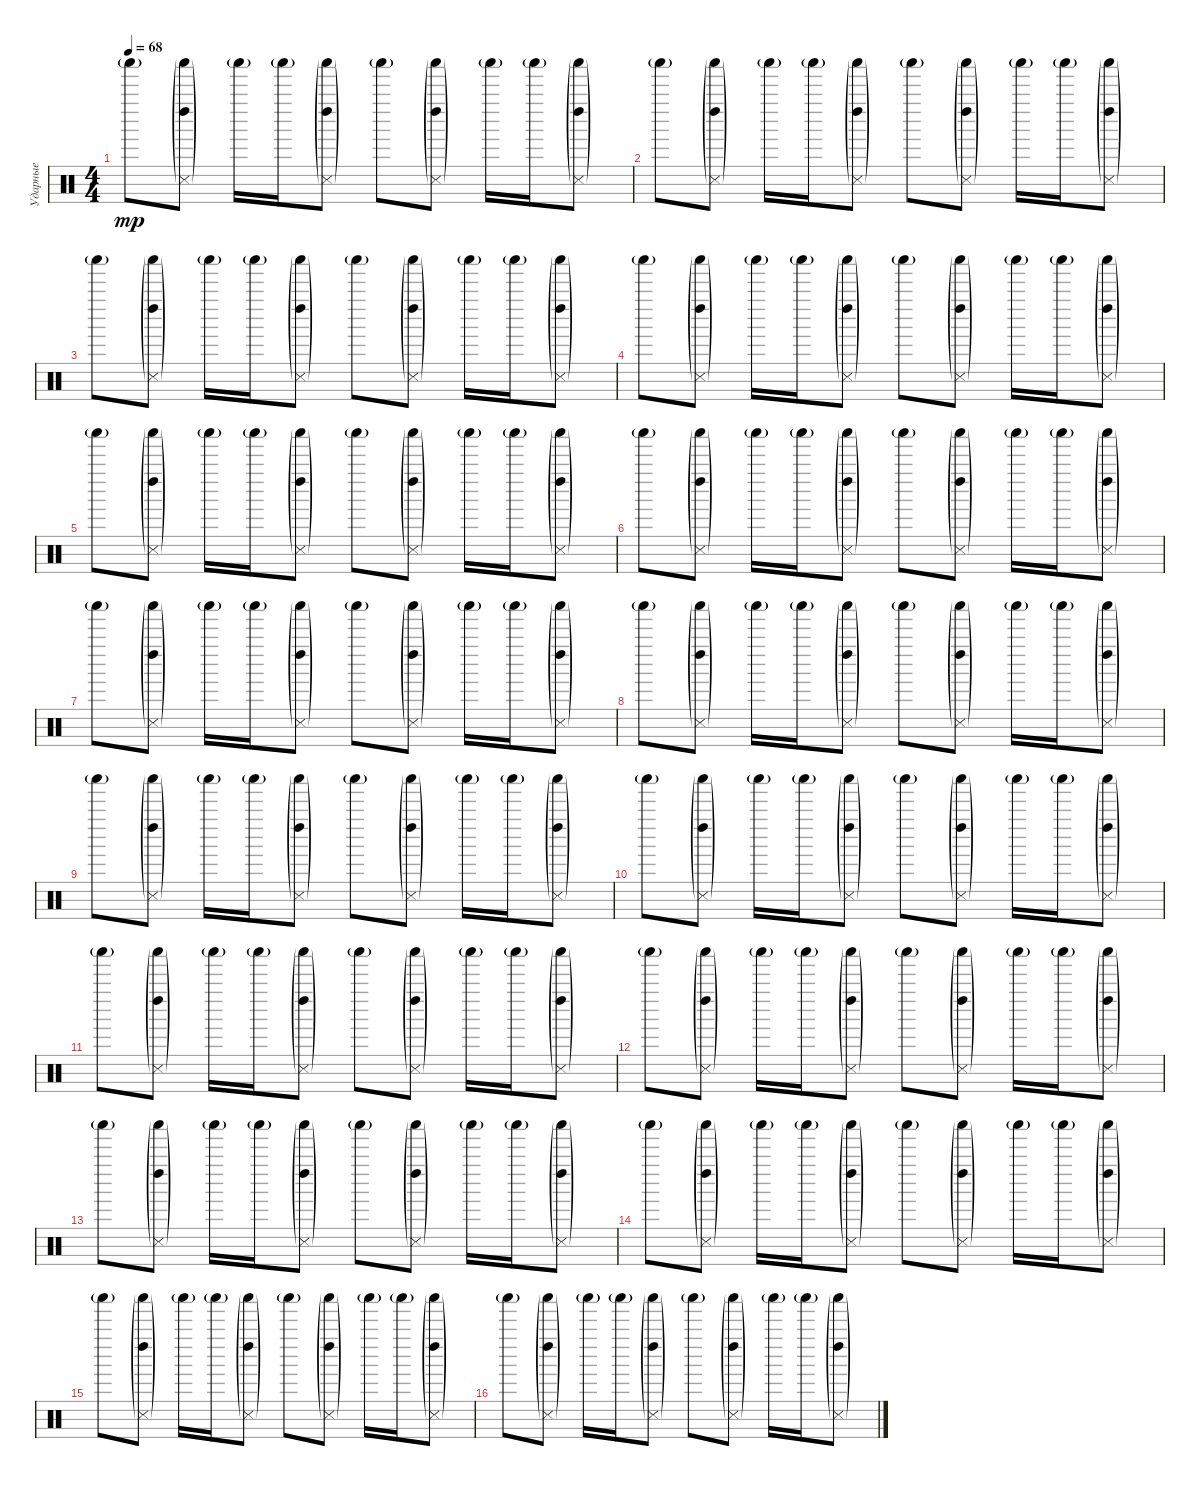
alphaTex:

\track ("Ударные" "Ударные") {instrument percussion}
\staff {score}
\articulation defaults
\ts (4 4)
\tempo 68
\clef neutral
\ks c "Shaker (hit)"{g}.8{dy mp}
("Left Maraca (hit)"{g} "Shaker (hit)"{g} "Snare (side stick) 3"{g}).8 "Shaker (hit)"{g}.16 "Shaker (hit)"{g}.16 ("Left Maraca (hit)"{g} "Shaker (hit)"{g} "Snare (side stick) 3"{g}).8 "Shaker (hit)"{g}.8 ("Left Maraca (hit)"{g} "Shaker (hit)"{g} "Snare (side stick) 3"{g}).8 "Shaker (hit)"{g}.16 "Shaker (hit)"{g}.16 ("Left Maraca (hit)"{g} "Shaker (hit)"{g} "Snare (side stick) 3"{g}).8 |
"Shaker (hit)"{g}.8 ("Left Maraca (hit)"{g} "Shaker (hit)"{g} "Snare (side stick) 3"{g}).8 "Shaker (hit)"{g}.16 "Shaker (hit)"{g}.16 ("Left Maraca (hit)"{g} "Shaker (hit)"{g} "Snare (side stick) 3"{g}).8 "Shaker (hit)"{g}.8 ("Left Maraca (hit)"{g} "Shaker (hit)"{g} "Snare (side stick) 3"{g}).8 "Shaker (hit)"{g}.16 "Shaker (hit)"{g}.16 ("Left Maraca (hit)"{g} "Shaker (hit)"{g} "Snare (side stick) 3"{g}).8 |
"Shaker (hit)"{g}.8 ("Left Maraca (hit)"{g} "Shaker (hit)"{g} "Snare (side stick) 3"{g}).8 "Shaker (hit)"{g}.16 "Shaker (hit)"{g}.16 ("Left Maraca (hit)"{g} "Shaker (hit)"{g} "Snare (side stick) 3"{g}).8 "Shaker (hit)"{g}.8 ("Left Maraca (hit)"{g} "Shaker (hit)"{g} "Snare (side stick) 3"{g}).8 "Shaker (hit)"{g}.16 "Shaker (hit)"{g}.16 ("Left Maraca (hit)"{g} "Shaker (hit)"{g} "Snare (side stick) 3"{g}).8 |
"Shaker (hit)"{g}.8 ("Left Maraca (hit)"{g} "Shaker (hit)"{g} "Snare (side stick) 3"{g}).8 "Shaker (hit)"{g}.16 "Shaker (hit)"{g}.16 ("Left Maraca (hit)"{g} "Shaker (hit)"{g} "Snare (side stick) 3"{g}).8 "Shaker (hit)"{g}.8 ("Left Maraca (hit)"{g} "Shaker (hit)"{g} "Snare (side stick) 3"{g}).8 "Shaker (hit)"{g}.16 "Shaker (hit)"{g}.16 ("Left Maraca (hit)"{g} "Shaker (hit)"{g} "Snare (side stick) 3"{g}).8 |
"Shaker (hit)"{g}.8 ("Left Maraca (hit)"{g} "Shaker (hit)"{g} "Snare (side stick) 3"{g}).8 "Shaker (hit)"{g}.16 "Shaker (hit)"{g}.16 ("Left Maraca (hit)"{g} "Shaker (hit)"{g} "Snare (side stick) 3"{g}).8 "Shaker (hit)"{g}.8 ("Left Maraca (hit)"{g} "Shaker (hit)"{g} "Snare (side stick) 3"{g}).8 "Shaker (hit)"{g}.16 "Shaker (hit)"{g}.16 ("Left Maraca (hit)"{g} "Shaker (hit)"{g} "Snare (side stick) 3"{g}).8 |
"Shaker (hit)"{g}.8 ("Left Maraca (hit)"{g} "Shaker (hit)"{g} "Snare (side stick) 3"{g}).8 "Shaker (hit)"{g}.16 "Shaker (hit)"{g}.16 ("Left Maraca (hit)"{g} "Shaker (hit)"{g} "Snare (side stick) 3"{g}).8 "Shaker (hit)"{g}.8 ("Left Maraca (hit)"{g} "Shaker (hit)"{g} "Snare (side stick) 3"{g}).8 "Shaker (hit)"{g}.16 "Shaker (hit)"{g}.16 ("Left Maraca (hit)"{g} "Shaker (hit)"{g} "Snare (side stick) 3"{g}).8 |
"Shaker (hit)"{g}.8 ("Left Maraca (hit)"{g} "Shaker (hit)"{g} "Snare (side stick) 3"{g}).8 "Shaker (hit)"{g}.16 "Shaker (hit)"{g}.16 ("Left Maraca (hit)"{g} "Shaker (hit)"{g} "Snare (side stick) 3"{g}).8 "Shaker (hit)"{g}.8 ("Left Maraca (hit)"{g} "Shaker (hit)"{g} "Snare (side stick) 3"{g}).8 "Shaker (hit)"{g}.16 "Shaker (hit)"{g}.16 ("Left Maraca (hit)"{g} "Shaker (hit)"{g} "Snare (side stick) 3"{g}).8 |
"Shaker (hit)"{g}.8 ("Left Maraca (hit)"{g} "Shaker (hit)"{g} "Snare (side stick) 3"{g}).8 "Shaker (hit)"{g}.16 "Shaker (hit)"{g}.16 ("Left Maraca (hit)"{g} "Shaker (hit)"{g} "Snare (side stick) 3"{g}).8 "Shaker (hit)"{g}.8 ("Left Maraca (hit)"{g} "Shaker (hit)"{g} "Snare (side stick) 3"{g}).8 "Shaker (hit)"{g}.16 "Shaker (hit)"{g}.16 ("Left Maraca (hit)"{g} "Shaker (hit)"{g} "Snare (side stick) 3"{g}).8 |
"Shaker (hit)"{g}.8 ("Left Maraca (hit)"{g} "Shaker (hit)"{g} "Snare (side stick) 3"{g}).8 "Shaker (hit)"{g}.16 "Shaker (hit)"{g}.16 ("Left Maraca (hit)"{g} "Shaker (hit)"{g} "Snare (side stick) 3"{g}).8 "Shaker (hit)"{g}.8 ("Left Maraca (hit)"{g} "Shaker (hit)"{g} "Snare (side stick) 3"{g}).8 "Shaker (hit)"{g}.16 "Shaker (hit)"{g}.16 ("Left Maraca (hit)"{g} "Shaker (hit)"{g} "Snare (side stick) 3"{g}).8 |
"Shaker (hit)"{g}.8 ("Left Maraca (hit)"{g} "Shaker (hit)"{g} "Snare (side stick) 3"{g}).8 "Shaker (hit)"{g}.16 "Shaker (hit)"{g}.16 ("Left Maraca (hit)"{g} "Shaker (hit)"{g} "Snare (side stick) 3"{g}).8 "Shaker (hit)"{g}.8 ("Left Maraca (hit)"{g} "Shaker (hit)"{g} "Snare (side stick) 3"{g}).8 "Shaker (hit)"{g}.16 "Shaker (hit)"{g}.16 ("Left Maraca (hit)"{g} "Shaker (hit)"{g} "Snare (side stick) 3"{g}).8 |
"Shaker (hit)"{g}.8 ("Left Maraca (hit)"{g} "Shaker (hit)"{g} "Snare (side stick) 3"{g}).8 "Shaker (hit)"{g}.16 "Shaker (hit)"{g}.16 ("Left Maraca (hit)"{g} "Shaker (hit)"{g} "Snare (side stick) 3"{g}).8 "Shaker (hit)"{g}.8 ("Left Maraca (hit)"{g} "Shaker (hit)"{g} "Snare (side stick) 3"{g}).8 "Shaker (hit)"{g}.16 "Shaker (hit)"{g}.16 ("Left Maraca (hit)"{g} "Shaker (hit)"{g} "Snare (side stick) 3"{g}).8 |
"Shaker (hit)"{g}.8 ("Left Maraca (hit)"{g} "Shaker (hit)"{g} "Snare (side stick) 3"{g}).8 "Shaker (hit)"{g}.16 "Shaker (hit)"{g}.16 ("Left Maraca (hit)"{g} "Shaker (hit)"{g} "Snare (side stick) 3"{g}).8 "Shaker (hit)"{g}.8 ("Left Maraca (hit)"{g} "Shaker (hit)"{g} "Snare (side stick) 3"{g}).8 "Shaker (hit)"{g}.16 "Shaker (hit)"{g}.16 ("Left Maraca (hit)"{g} "Shaker (hit)"{g} "Snare (side stick) 3"{g}).8 |
"Shaker (hit)"{g}.8 ("Left Maraca (hit)"{g} "Shaker (hit)"{g} "Snare (side stick) 3"{g}).8 "Shaker (hit)"{g}.16 "Shaker (hit)"{g}.16 ("Left Maraca (hit)"{g} "Shaker (hit)"{g} "Snare (side stick) 3"{g}).8 "Shaker (hit)"{g}.8 ("Left Maraca (hit)"{g} "Shaker (hit)"{g} "Snare (side stick) 3"{g}).8 "Shaker (hit)"{g}.16 "Shaker (hit)"{g}.16 ("Left Maraca (hit)"{g} "Shaker (hit)"{g} "Snare (side stick) 3"{g}).8 |
"Shaker (hit)"{g}.8 ("Left Maraca (hit)"{g} "Shaker (hit)"{g} "Snare (side stick) 3"{g}).8 "Shaker (hit)"{g}.16 "Shaker (hit)"{g}.16 ("Left Maraca (hit)"{g} "Shaker (hit)"{g} "Snare (side stick) 3"{g}).8 "Shaker (hit)"{g}.8 ("Left Maraca (hit)"{g} "Shaker (hit)"{g} "Snare (side stick) 3"{g}).8 "Shaker (hit)"{g}.16 "Shaker (hit)"{g}.16 ("Left Maraca (hit)"{g} "Shaker (hit)"{g} "Snare (side stick) 3"{g}).8 |
"Shaker (hit)"{g}.8 ("Left Maraca (hit)"{g} "Shaker (hit)"{g} "Snare (side stick) 3"{g}).8 "Shaker (hit)"{g}.16 "Shaker (hit)"{g}.16 ("Left Maraca (hit)"{g} "Shaker (hit)"{g} "Snare (side stick) 3"{g}).8 "Shaker (hit)"{g}.8 ("Left Maraca (hit)"{g} "Shaker (hit)"{g} "Snare (side stick) 3"{g}).8 "Shaker (hit)"{g}.16 "Shaker (hit)"{g}.16 ("Left Maraca (hit)"{g} "Shaker (hit)"{g} "Snare (side stick) 3"{g}).8 |
"Shaker (hit)"{g}.8 ("Left Maraca (hit)"{g} "Shaker (hit)"{g} "Snare (side stick) 3"{g}).8 "Shaker (hit)"{g}.16 "Shaker (hit)"{g}.16 ("Left Maraca (hit)"{g} "Shaker (hit)"{g} "Snare (side stick) 3"{g}).8 "Shaker (hit)"{g}.8 ("Left Maraca (hit)"{g} "Shaker (hit)"{g} "Snare (side stick) 3"{g}).8 "Shaker (hit)"{g}.16 "Shaker (hit)"{g}.16 ("Left Maraca (hit)"{g} "Shaker (hit)"{g} "Snare (side stick) 3"{g}).8
